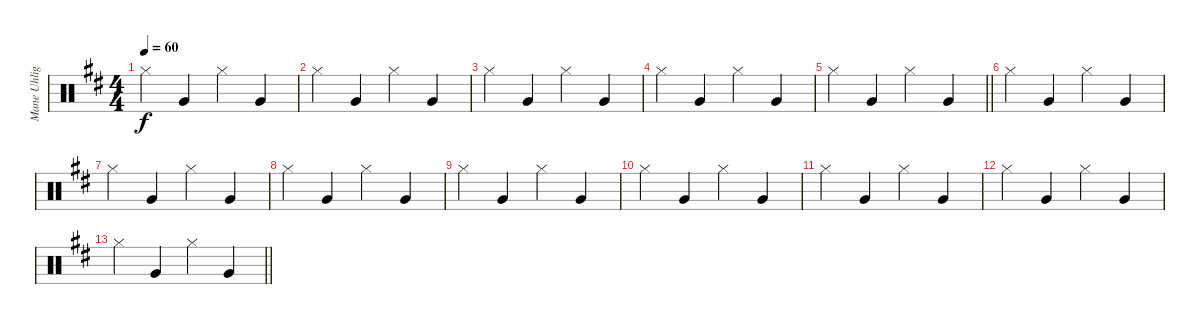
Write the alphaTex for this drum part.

\track ("Mane Uhlig" "Mane Uhlig") {instrument percussion}
\staff {score}
\articulation defaults
\ts (4 4)
\tempo 60
\clef neutral
\ks d "Hi-Hat (closed)".4{dy f} "Very Low Tom (hit)".4 "Hi-Hat (closed)".4 "Very Low Tom (hit)".4
|
"Hi-Hat (closed)".4 "Very Low Tom (hit)".4 "Hi-Hat (closed)".4 "Very Low Tom (hit)".4 |
"Hi-Hat (closed)".4 "Very Low Tom (hit)".4 "Hi-Hat (closed)".4 "Very Low Tom (hit)".4 |
"Hi-Hat (closed)".4 "Very Low Tom (hit)".4 "Hi-Hat (closed)".4 "Very Low Tom (hit)".4 |
\barLineRight lightlight "Hi-Hat (closed)".4 "Very Low Tom (hit)".4 "Hi-Hat (closed)".4 "Very Low Tom (hit)".4
|
"Hi-Hat (closed)".4 "Very Low Tom (hit)".4 "Hi-Hat (closed)".4 "Very Low Tom (hit)".4 |
"Hi-Hat (closed)".4 "Very Low Tom (hit)".4 "Hi-Hat (closed)".4 "Very Low Tom (hit)".4 |
"Hi-Hat (closed)".4 "Very Low Tom (hit)".4 "Hi-Hat (closed)".4 "Very Low Tom (hit)".4 |
"Hi-Hat (closed)".4 "Very Low Tom (hit)".4 "Hi-Hat (closed)".4 "Very Low Tom (hit)".4 |
"Hi-Hat (closed)".4 "Very Low Tom (hit)".4 "Hi-Hat (closed)".4 "Very Low Tom (hit)".4 |
"Hi-Hat (closed)".4 "Very Low Tom (hit)".4 "Hi-Hat (closed)".4 "Very Low Tom (hit)".4 |
"Hi-Hat (closed)".4 "Very Low Tom (hit)".4 "Hi-Hat (closed)".4 "Very Low Tom (hit)".4 |
\barLineRight lightlight "Hi-Hat (closed)".4 "Very Low Tom (hit)".4 "Hi-Hat (closed)".4 "Very Low Tom (hit)".4
